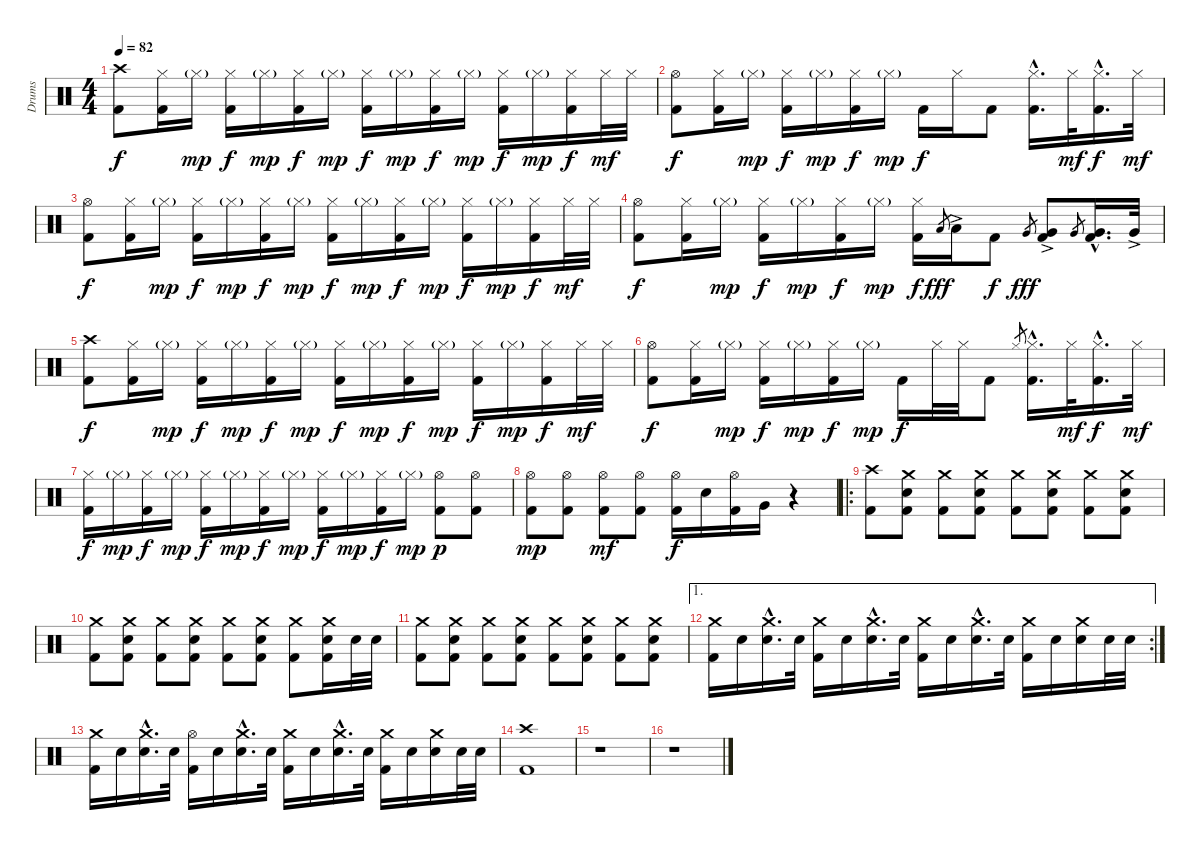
\track ("Drums" "Drums") {instrument percussion}
\staff {score}
\articulation defaults
\ts (4 4)
\tempo 82
\clef neutral
\ks c
("Crash high (hit)" "Kick (hit) 2").8{dy f} ("Hi-Hat (closed)" "Kick (hit) 2").16 "Hi-Hat (closed)"{g}.16{dy mp} ("Hi-Hat (closed)" "Kick (hit) 2").16{dy f} "Hi-Hat (closed)"{g}.16{dy mp} ("Hi-Hat (closed)" "Kick (hit) 2").16{dy f} "Hi-Hat (closed)"{g}.16{dy mp} ("Hi-Hat (closed)" "Kick (hit) 2").16{dy f} "Hi-Hat (closed)"{g}.16{dy mp} ("Hi-Hat (closed)" "Kick (hit) 2").16{dy f} "Hi-Hat (closed)"{g}.16{dy mp} ("Hi-Hat (closed)" "Kick (hit) 2").16{dy f} "Hi-Hat (closed)"{g}.16{dy mp} ("Hi-Hat (closed)" "Kick (hit) 2").16{dy f} "Hi-Hat (closed)".32{dy mf} "Hi-Hat (closed)".32 |
("Hi-Hat (open)" "Kick (hit) 2").8{dy f} ("Hi-Hat (closed)" "Kick (hit) 2").16 "Hi-Hat (closed)"{g}.16{dy mp} ("Hi-Hat (closed)" "Kick (hit) 2").16{dy f} "Hi-Hat (closed)"{g}.16{dy mp} ("Hi-Hat (closed)" "Kick (hit) 2").16{dy f} "Hi-Hat (closed)"{g}.16{dy mp} "Kick (hit) 2".16{dy f} "Hi-Hat (closed)".16 "Kick (hit) 2".8 ("Hi-Hat (closed)"{hac} "Kick (hit) 2"{hac}).16{d} "Hi-Hat (closed)".32{dy mf} ("Hi-Hat (closed)"{hac} "Kick (hit) 2"{hac}).16{d dy f} "Hi-Hat (closed)".32{dy mf} |
("Hi-Hat (open)" "Kick (hit) 2").8{dy f} ("Hi-Hat (closed)" "Kick (hit) 2").16 "Hi-Hat (closed)"{g}.16{dy mp} ("Hi-Hat (closed)" "Kick (hit) 2").16{dy f} "Hi-Hat (closed)"{g}.16{dy mp} ("Hi-Hat (closed)" "Kick (hit) 2").16{dy f} "Hi-Hat (closed)"{g}.16{dy mp} ("Hi-Hat (closed)" "Kick (hit) 2").16{dy f} "Hi-Hat (closed)"{g}.16{dy mp} ("Hi-Hat (closed)" "Kick (hit) 2").16{dy f} "Hi-Hat (closed)"{g}.16{dy mp} ("Hi-Hat (closed)" "Kick (hit) 2").16{dy f} "Hi-Hat (closed)"{g}.16{dy mp} ("Hi-Hat (closed)" "Kick (hit) 2").16{dy f} "Hi-Hat (closed)".32{dy mf} "Hi-Hat (closed)".32 |
("Hi-Hat (open)" "Kick (hit) 2").8{dy f} ("Hi-Hat (closed)" "Kick (hit) 2").16 "Hi-Hat (closed)"{g}.16{dy mp} ("Hi-Hat (closed)" "Kick (hit) 2").16{dy f} "Hi-Hat (closed)"{g}.16{dy mp} ("Hi-Hat (closed)" "Kick (hit) 2").16{dy f} "Hi-Hat (closed)"{g}.16{dy mp} ("Hi-Hat (closed)" "Kick (hit) 2").16{dy f} "Low Tom (hit)".8{gr dy fff} "Low Tom (hit)"{ac}.16 "Kick (hit) 2".8{dy f} "Very Low Tom (hit)".8{gr dy fff} ("Very Low Tom (hit)"{ac} "Kick (hit) 2").8 "Very Low Tom (hit)".8{gr} ("Very Low Tom (hit)"{hac} "Kick (hit) 2"{hac}).16{d} "Very Low Tom (hit)"{ac}.32 |
("Crash high (hit)" "Kick (hit) 2").8{dy f} ("Hi-Hat (closed)" "Kick (hit) 2").16 "Hi-Hat (closed)"{g}.16{dy mp} ("Hi-Hat (closed)" "Kick (hit) 2").16{dy f} "Hi-Hat (closed)"{g}.16{dy mp} ("Hi-Hat (closed)" "Kick (hit) 2").16{dy f} "Hi-Hat (closed)"{g}.16{dy mp} ("Hi-Hat (closed)" "Kick (hit) 2").16{dy f} "Hi-Hat (closed)"{g}.16{dy mp} ("Hi-Hat (closed)" "Kick (hit) 2").16{dy f} "Hi-Hat (closed)"{g}.16{dy mp} ("Hi-Hat (closed)" "Kick (hit) 2").16{dy f} "Hi-Hat (closed)"{g}.16{dy mp} ("Hi-Hat (closed)" "Kick (hit) 2").16{dy f} "Hi-Hat (closed)".32{dy mf} "Hi-Hat (closed)".32 |
("Hi-Hat (open)" "Kick (hit) 2").8{dy f} ("Hi-Hat (closed)" "Kick (hit) 2").16 "Hi-Hat (closed)"{g}.16{dy mp} ("Hi-Hat (closed)" "Kick (hit) 2").16{dy f} "Hi-Hat (closed)"{g}.16{dy mp} ("Hi-Hat (closed)" "Kick (hit) 2").16{dy f} "Hi-Hat (closed)"{g}.16{dy mp} "Kick (hit) 2".16{dy f} "Hi-Hat (closed)".32 "Hi-Hat (closed)".32 "Kick (hit) 2".8 "Hi-Hat (closed)".8{gr} ("Hi-Hat (closed)"{hac} "Kick (hit) 2"{hac}).16{d} "Hi-Hat (closed)".32{dy mf} ("Hi-Hat (closed)"{hac} "Kick (hit) 2"{hac}).16{d dy f} "Hi-Hat (closed)".32{dy mf} |
("Hi-Hat (closed)" "Kick (hit) 2").16{dy f} "Hi-Hat (closed)"{g}.16{dy mp} ("Hi-Hat (closed)" "Kick (hit) 2").16{dy f} "Hi-Hat (closed)"{g}.16{dy mp} ("Hi-Hat (closed)" "Kick (hit) 2").16{dy f} "Hi-Hat (closed)"{g}.16{dy mp} ("Hi-Hat (closed)" "Kick (hit) 2").16{dy f} "Hi-Hat (closed)"{g}.16{dy mp} ("Hi-Hat (closed)" "Kick (hit) 2").16{dy f} "Hi-Hat (closed)"{g}.16{dy mp} ("Hi-Hat (closed)" "Kick (hit) 2").16{dy f} "Hi-Hat (closed)"{g}.16{dy mp} ("Hi-Hat (open)" "Kick (hit) 2").8{dy p} ("Hi-Hat (open)" "Kick (hit) 2").8 |
("Hi-Hat (open)" "Kick (hit) 2").8{dy mp} ("Hi-Hat (open)" "Kick (hit) 2").8 ("Hi-Hat (open)" "Kick (hit) 2").8{dy mf} ("Hi-Hat (open)" "Kick (hit) 2").8 ("Hi-Hat (open)" "Kick (hit) 2").16{dy f} "Snare (hit) 2".16 ("Hi-Hat (open)" "Kick (hit) 2").16 "Very Low Tom (hit)".16 r.4 |
\ro
("Crash high (hit)" "Kick (hit) 2").8 ("Crash medium (hit)" "Snare (hit) 2" "Kick (hit) 2").8 ("Crash medium (hit)" "Kick (hit) 2").8 ("Crash medium (hit)" "Snare (hit) 2" "Kick (hit) 2").8 ("Crash medium (hit)" "Kick (hit) 2").8 ("Crash medium (hit)" "Snare (hit) 2" "Kick (hit) 2").8 ("Crash medium (hit)" "Kick (hit) 2").8 ("Crash medium (hit)" "Snare (hit) 2" "Kick (hit) 2").8 |
("Crash medium (hit)" "Kick (hit) 2").8 ("Crash medium (hit)" "Snare (hit) 2" "Kick (hit) 2").8 ("Crash medium (hit)" "Kick (hit) 2").8 ("Crash medium (hit)" "Snare (hit) 2" "Kick (hit) 2").8 ("Crash medium (hit)" "Kick (hit) 2").8 ("Crash medium (hit)" "Snare (hit) 2" "Kick (hit) 2").8 ("Crash medium (hit)" "Kick (hit) 2").8 ("Crash medium (hit)" "Snare (hit) 2" "Kick (hit) 2").16 "Snare (hit) 2".32 "Snare (hit) 2".32 |
("Crash medium (hit)" "Kick (hit) 2").8 ("Crash medium (hit)" "Snare (hit) 2" "Kick (hit) 2").8 ("Crash medium (hit)" "Kick (hit) 2").8 ("Crash medium (hit)" "Snare (hit) 2" "Kick (hit) 2").8 ("Crash medium (hit)" "Kick (hit) 2").8 ("Crash medium (hit)" "Snare (hit) 2" "Kick (hit) 2").8 ("Crash medium (hit)" "Kick (hit) 2").8 ("Crash medium (hit)" "Snare (hit) 2" "Kick (hit) 2").8 |
\ae 1
\rc 2
("Crash medium (hit)" "Kick (hit) 2").16 "Snare (hit) 2".16 ("Crash medium (hit)"{hac} "Snare (hit) 2"{hac}).16{d} "Snare (hit) 2".32 ("Crash medium (hit)" "Kick (hit) 2").16 "Snare (hit) 2".16 ("Crash medium (hit)"{hac} "Snare (hit) 2"{hac}).16{d} "Snare (hit) 2".32 ("Crash medium (hit)" "Kick (hit) 2").16 "Snare (hit) 2".16 ("Crash medium (hit)"{hac} "Snare (hit) 2"{hac}).16{d} "Snare (hit) 2".32 ("Crash medium (hit)" "Kick (hit) 2").16 "Snare (hit) 2".16 ("Crash medium (hit)" "Snare (hit) 2").16 "Snare (hit) 2".32 "Snare (hit) 2".32 |
("Crash medium (hit)" "Kick (hit) 2").16 "Snare (hit) 2".16 ("Crash medium (hit)"{hac} "Snare (hit) 2"{hac}).16{d} "Snare (hit) 2".32 ("Hi-Hat (open)" "Kick (hit) 2").16 "Snare (hit) 2".16 ("Crash medium (hit)"{hac} "Snare (hit) 2"{hac}).16{d} "Snare (hit) 2".32 ("Crash medium (hit)" "Kick (hit) 2").16 "Snare (hit) 2".16 ("Crash medium (hit)"{hac} "Snare (hit) 2"{hac}).16{d} "Snare (hit) 2".32 ("Crash medium (hit)" "Kick (hit) 2").16 "Snare (hit) 2".16 ("Crash medium (hit)" "Snare (hit) 2").16 "Snare (hit) 2".32 "Snare (hit) 2".32 |
("Crash high (hit)" "Kick (hit) 2").1 |
r.1 |
r.1
